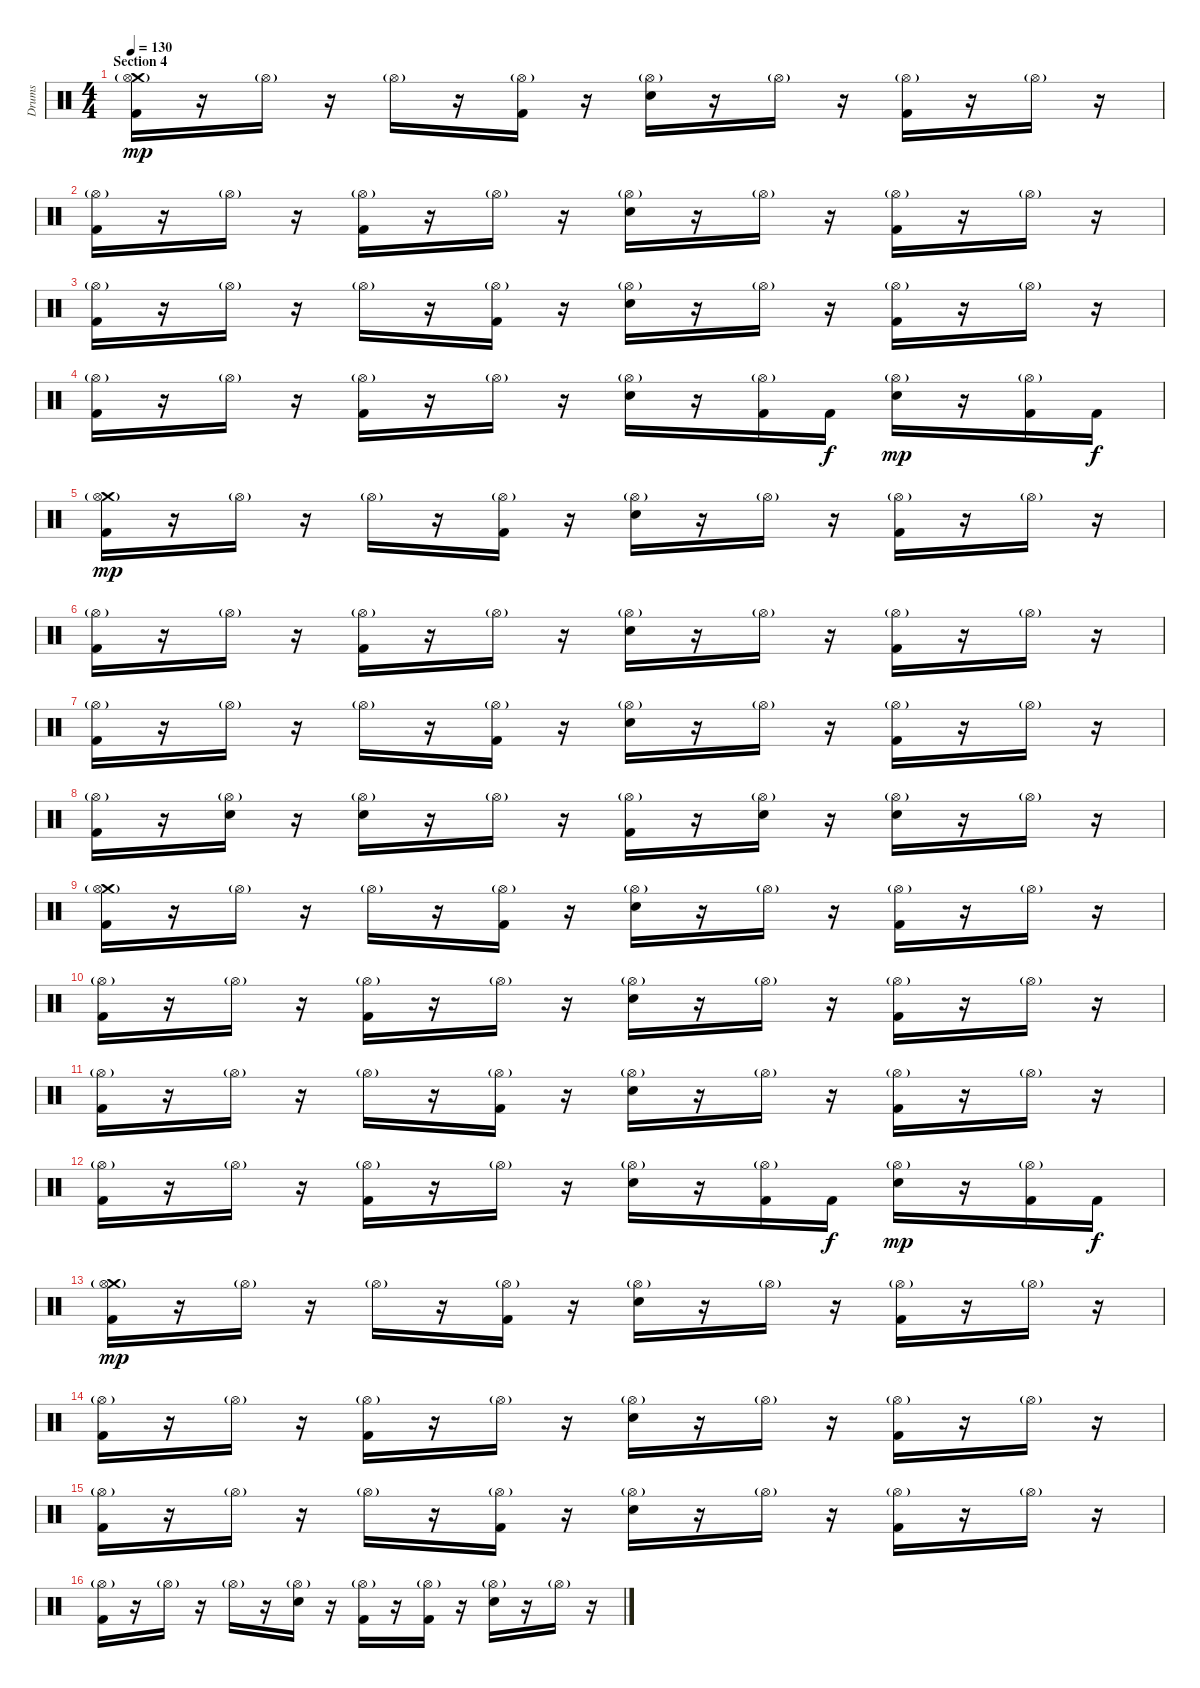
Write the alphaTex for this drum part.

\track ("Drums" "Drums") {instrument percussion}
\staff {score}
\articulation defaults
\ts (4 4)
\section ("" "Section 4")
\tempo 130
\clef neutral
\ks c
("Kick (hit) 2" "Crash medium (hit)" "Hi-Hat (open)"{g}).16{dy mp} r.16 "Hi-Hat (open)"{g}.16 r.16 "Hi-Hat (open)"{g}.16 r.16 ("Kick (hit) 2" "Hi-Hat (open)"{g}).16 r.16 ("Electric Snare (hit)" "Hi-Hat (open)"{g}).16 r.16 "Hi-Hat (open)"{g}.16 r.16 ("Kick (hit) 2" "Hi-Hat (open)"{g}).16 r.16 "Hi-Hat (open)"{g}.16 r.16 |
("Kick (hit) 2" "Hi-Hat (open)"{g}).16 r.16 "Hi-Hat (open)"{g}.16 r.16 ("Kick (hit) 2" "Hi-Hat (open)"{g}).16 r.16 "Hi-Hat (open)"{g}.16 r.16 ("Electric Snare (hit)" "Hi-Hat (open)"{g}).16 r.16 "Hi-Hat (open)"{g}.16 r.16 ("Kick (hit) 2" "Hi-Hat (open)"{g}).16 r.16 "Hi-Hat (open)"{g}.16 r.16 |
("Kick (hit) 2" "Hi-Hat (open)"{g}).16 r.16 "Hi-Hat (open)"{g}.16 r.16 "Hi-Hat (open)"{g}.16 r.16 ("Kick (hit) 2" "Hi-Hat (open)"{g}).16 r.16 ("Electric Snare (hit)" "Hi-Hat (open)"{g}).16 r.16 "Hi-Hat (open)"{g}.16 r.16 ("Kick (hit) 2" "Hi-Hat (open)"{g}).16 r.16 "Hi-Hat (open)"{g}.16 r.16 |
("Kick (hit) 2" "Hi-Hat (open)"{g}).16 r.16 "Hi-Hat (open)"{g}.16 r.16 ("Kick (hit) 2" "Hi-Hat (open)"{g}).16 r.16 "Hi-Hat (open)"{g}.16 r.16 ("Electric Snare (hit)" "Hi-Hat (open)"{g}).16 r.16 ("Kick (hit) 2" "Hi-Hat (open)"{g}).16 "Kick (hit) 2".16{dy f} ("Electric Snare (hit)" "Hi-Hat (open)"{g}).16{dy mp} r.16 ("Kick (hit) 2" "Hi-Hat (open)"{g}).16 "Kick (hit) 2".16{dy f} |
("Kick (hit) 2" "Crash medium (hit)" "Hi-Hat (open)"{g}).16{dy mp} r.16 "Hi-Hat (open)"{g}.16 r.16 "Hi-Hat (open)"{g}.16 r.16 ("Kick (hit) 2" "Hi-Hat (open)"{g}).16 r.16 ("Electric Snare (hit)" "Hi-Hat (open)"{g}).16 r.16 "Hi-Hat (open)"{g}.16 r.16 ("Kick (hit) 2" "Hi-Hat (open)"{g}).16 r.16 "Hi-Hat (open)"{g}.16 r.16 |
("Kick (hit) 2" "Hi-Hat (open)"{g}).16 r.16 "Hi-Hat (open)"{g}.16 r.16 ("Kick (hit) 2" "Hi-Hat (open)"{g}).16 r.16 "Hi-Hat (open)"{g}.16 r.16 ("Electric Snare (hit)" "Hi-Hat (open)"{g}).16 r.16 "Hi-Hat (open)"{g}.16 r.16 ("Kick (hit) 2" "Hi-Hat (open)"{g}).16 r.16 "Hi-Hat (open)"{g}.16 r.16 |
("Kick (hit) 2" "Hi-Hat (open)"{g}).16 r.16 "Hi-Hat (open)"{g}.16 r.16 "Hi-Hat (open)"{g}.16 r.16 ("Kick (hit) 2" "Hi-Hat (open)"{g}).16 r.16 ("Electric Snare (hit)" "Hi-Hat (open)"{g}).16 r.16 "Hi-Hat (open)"{g}.16 r.16 ("Kick (hit) 2" "Hi-Hat (open)"{g}).16 r.16 "Hi-Hat (open)"{g}.16 r.16 |
("Kick (hit) 2" "Hi-Hat (open)"{g}).16 r.16 ("Electric Snare (hit)" "Hi-Hat (open)"{g}).16 r.16 ("Electric Snare (hit)" "Hi-Hat (open)"{g}).16 r.16 "Hi-Hat (open)"{g}.16 r.16 ("Kick (hit) 2" "Hi-Hat (open)"{g}).16 r.16 ("Electric Snare (hit)" "Hi-Hat (open)"{g}).16 r.16 ("Electric Snare (hit)" "Hi-Hat (open)"{g}).16 r.16 "Hi-Hat (open)"{g}.16 r.16 |
("Kick (hit) 2" "Crash medium (hit)" "Hi-Hat (open)"{g}).16 r.16 "Hi-Hat (open)"{g}.16 r.16 "Hi-Hat (open)"{g}.16 r.16 ("Kick (hit) 2" "Hi-Hat (open)"{g}).16 r.16 ("Electric Snare (hit)" "Hi-Hat (open)"{g}).16 r.16 "Hi-Hat (open)"{g}.16 r.16 ("Kick (hit) 2" "Hi-Hat (open)"{g}).16 r.16 "Hi-Hat (open)"{g}.16 r.16 |
("Kick (hit) 2" "Hi-Hat (open)"{g}).16 r.16 "Hi-Hat (open)"{g}.16 r.16 ("Kick (hit) 2" "Hi-Hat (open)"{g}).16 r.16 "Hi-Hat (open)"{g}.16 r.16 ("Electric Snare (hit)" "Hi-Hat (open)"{g}).16 r.16 "Hi-Hat (open)"{g}.16 r.16 ("Kick (hit) 2" "Hi-Hat (open)"{g}).16 r.16 "Hi-Hat (open)"{g}.16 r.16 |
("Kick (hit) 2" "Hi-Hat (open)"{g}).16 r.16 "Hi-Hat (open)"{g}.16 r.16 "Hi-Hat (open)"{g}.16 r.16 ("Kick (hit) 2" "Hi-Hat (open)"{g}).16 r.16 ("Electric Snare (hit)" "Hi-Hat (open)"{g}).16 r.16 "Hi-Hat (open)"{g}.16 r.16 ("Kick (hit) 2" "Hi-Hat (open)"{g}).16 r.16 "Hi-Hat (open)"{g}.16 r.16 |
("Kick (hit) 2" "Hi-Hat (open)"{g}).16 r.16 "Hi-Hat (open)"{g}.16 r.16 ("Kick (hit) 2" "Hi-Hat (open)"{g}).16 r.16 "Hi-Hat (open)"{g}.16 r.16 ("Electric Snare (hit)" "Hi-Hat (open)"{g}).16 r.16 ("Kick (hit) 2" "Hi-Hat (open)"{g}).16 "Kick (hit) 2".16{dy f} ("Electric Snare (hit)" "Hi-Hat (open)"{g}).16{dy mp} r.16 ("Kick (hit) 2" "Hi-Hat (open)"{g}).16 "Kick (hit) 2".16{dy f} |
("Kick (hit) 2" "Crash medium (hit)" "Hi-Hat (open)"{g}).16{dy mp} r.16 "Hi-Hat (open)"{g}.16 r.16 "Hi-Hat (open)"{g}.16 r.16 ("Kick (hit) 2" "Hi-Hat (open)"{g}).16 r.16 ("Electric Snare (hit)" "Hi-Hat (open)"{g}).16 r.16 "Hi-Hat (open)"{g}.16 r.16 ("Kick (hit) 2" "Hi-Hat (open)"{g}).16 r.16 "Hi-Hat (open)"{g}.16 r.16 |
("Kick (hit) 2" "Hi-Hat (open)"{g}).16 r.16 "Hi-Hat (open)"{g}.16 r.16 ("Kick (hit) 2" "Hi-Hat (open)"{g}).16 r.16 "Hi-Hat (open)"{g}.16 r.16 ("Electric Snare (hit)" "Hi-Hat (open)"{g}).16 r.16 "Hi-Hat (open)"{g}.16 r.16 ("Kick (hit) 2" "Hi-Hat (open)"{g}).16 r.16 "Hi-Hat (open)"{g}.16 r.16 |
("Kick (hit) 2" "Hi-Hat (open)"{g}).16 r.16 "Hi-Hat (open)"{g}.16 r.16 "Hi-Hat (open)"{g}.16 r.16 ("Kick (hit) 2" "Hi-Hat (open)"{g}).16 r.16 ("Electric Snare (hit)" "Hi-Hat (open)"{g}).16 r.16 "Hi-Hat (open)"{g}.16 r.16 ("Kick (hit) 2" "Hi-Hat (open)"{g}).16 r.16 "Hi-Hat (open)"{g}.16 r.16 |
("Kick (hit) 2" "Hi-Hat (open)"{g}).16 r.16 "Hi-Hat (open)"{g}.16 r.16 "Hi-Hat (open)"{g}.16 r.16 ("Electric Snare (hit)" "Hi-Hat (open)"{g}).16 r.16 ("Kick (hit) 2" "Hi-Hat (open)"{g}).16 r.16 ("Kick (hit) 2" "Hi-Hat (open)"{g}).16 r.16 ("Electric Snare (hit)" "Hi-Hat (open)"{g}).16 r.16 "Hi-Hat (open)"{g}.16 r.16
